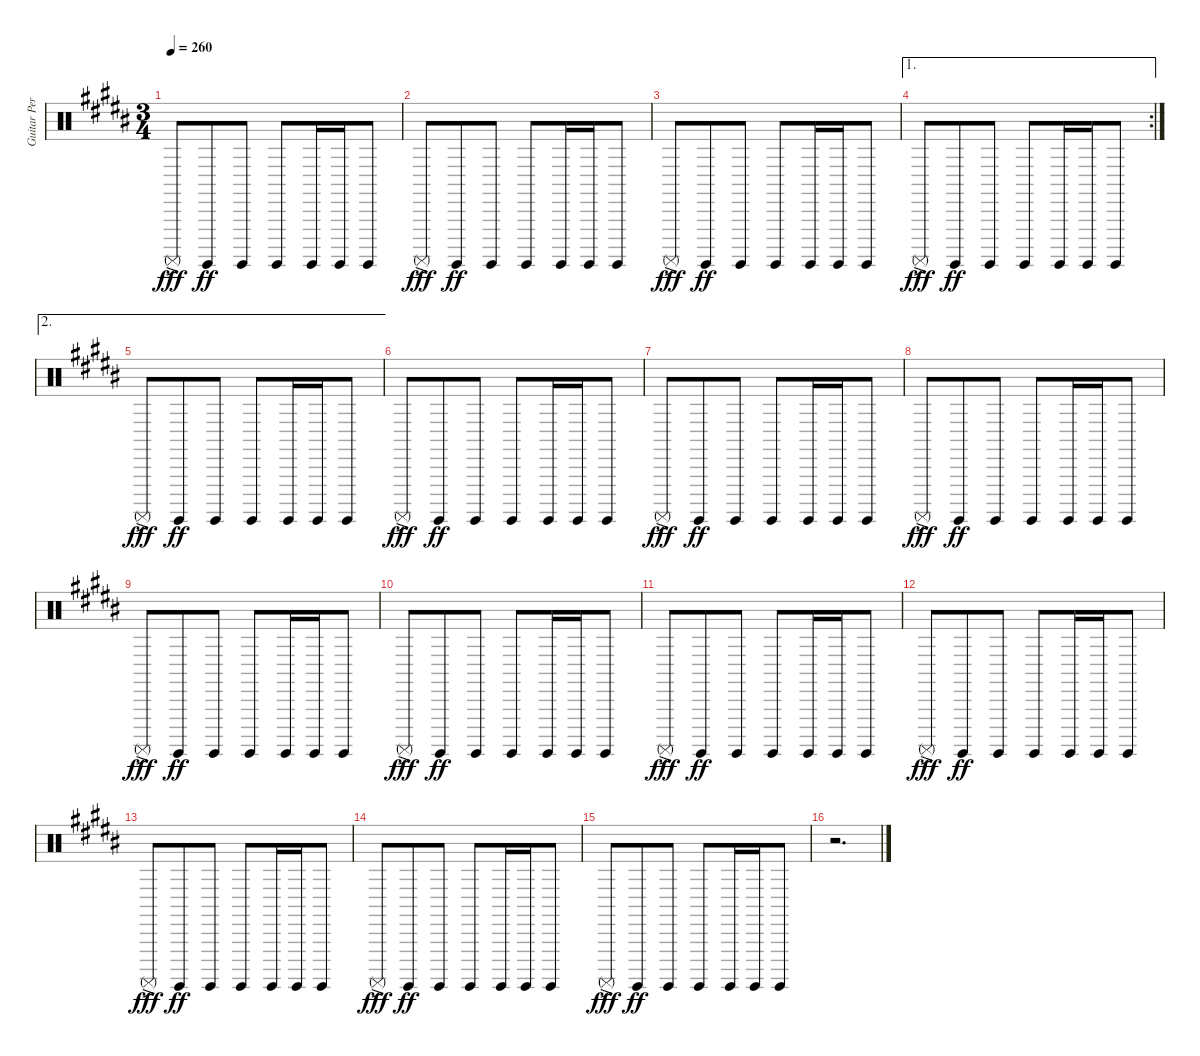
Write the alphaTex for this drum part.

\track ("Guitar Percussion Noises" "Guitar Per") {instrument percussion}
\staff {score}
\articulation defaults
\ts (3 4)
\tempo 260
\clef neutral
\ks b "Surdo (mute)"{ac}.8{dy fff} "Surdo (hit)".8{dy ff beam merge} "Surdo (hit)".8{beam split} "Surdo (hit)".8{beam merge} "Surdo (hit)".16{beam merge} "Surdo (hit)".16 "Surdo (hit)".8
|
"Surdo (mute)"{ac}.8{dy fff} "Surdo (hit)".8{dy ff beam merge} "Surdo (hit)".8{beam split} "Surdo (hit)".8{beam merge} "Surdo (hit)".16{beam merge} "Surdo (hit)".16 "Surdo (hit)".8 |
"Surdo (mute)"{ac}.8{dy fff} "Surdo (hit)".8{dy ff beam merge} "Surdo (hit)".8{beam split} "Surdo (hit)".8{beam merge} "Surdo (hit)".16{beam merge} "Surdo (hit)".16 "Surdo (hit)".8 |
\ae 1
\rc 2 "Surdo (mute)"{ac}.8{dy fff} "Surdo (hit)".8{dy ff beam merge} "Surdo (hit)".8{beam split} "Surdo (hit)".8{beam merge} "Surdo (hit)".16{beam merge} "Surdo (hit)".16 "Surdo (hit)".8
|
\ae 2 "Surdo (mute)"{ac}.8{dy fff} "Surdo (hit)".8{dy ff beam merge} "Surdo (hit)".8{beam split} "Surdo (hit)".8{beam merge} "Surdo (hit)".16{beam merge} "Surdo (hit)".16 "Surdo (hit)".8
|
"Surdo (mute)"{ac}.8{dy fff} "Surdo (hit)".8{dy ff beam merge} "Surdo (hit)".8{beam split} "Surdo (hit)".8{beam merge} "Surdo (hit)".16{beam merge} "Surdo (hit)".16 "Surdo (hit)".8 |
"Surdo (mute)"{ac}.8{dy fff} "Surdo (hit)".8{dy ff beam merge} "Surdo (hit)".8{beam split} "Surdo (hit)".8{beam merge} "Surdo (hit)".16{beam merge} "Surdo (hit)".16 "Surdo (hit)".8 |
"Surdo (mute)"{ac}.8{dy fff} "Surdo (hit)".8{dy ff beam merge} "Surdo (hit)".8{beam split} "Surdo (hit)".8{beam merge} "Surdo (hit)".16{beam merge} "Surdo (hit)".16 "Surdo (hit)".8 |
"Surdo (mute)"{ac}.8{dy fff} "Surdo (hit)".8{dy ff beam merge} "Surdo (hit)".8{beam split} "Surdo (hit)".8{beam merge} "Surdo (hit)".16{beam merge} "Surdo (hit)".16 "Surdo (hit)".8 |
"Surdo (mute)"{ac}.8{dy fff} "Surdo (hit)".8{dy ff beam merge} "Surdo (hit)".8{beam split} "Surdo (hit)".8{beam merge} "Surdo (hit)".16{beam merge} "Surdo (hit)".16 "Surdo (hit)".8 |
"Surdo (mute)"{ac}.8{dy fff} "Surdo (hit)".8{dy ff beam merge} "Surdo (hit)".8{beam split} "Surdo (hit)".8{beam merge} "Surdo (hit)".16{beam merge} "Surdo (hit)".16 "Surdo (hit)".8 |
"Surdo (mute)"{ac}.8{dy fff} "Surdo (hit)".8{dy ff beam merge} "Surdo (hit)".8{beam split} "Surdo (hit)".8{beam merge} "Surdo (hit)".16{beam merge} "Surdo (hit)".16 "Surdo (hit)".8 |
"Surdo (mute)"{ac}.8{dy fff} "Surdo (hit)".8{dy ff beam merge} "Surdo (hit)".8{beam split} "Surdo (hit)".8{beam merge} "Surdo (hit)".16{beam merge} "Surdo (hit)".16 "Surdo (hit)".8 |
"Surdo (mute)"{ac}.8{dy fff} "Surdo (hit)".8{dy ff beam merge} "Surdo (hit)".8{beam split} "Surdo (hit)".8{beam merge} "Surdo (hit)".16{beam merge} "Surdo (hit)".16 "Surdo (hit)".8 |
"Surdo (mute)"{ac}.8{dy fff} "Surdo (hit)".8{dy ff beam merge} "Surdo (hit)".8{beam split} "Surdo (hit)".8{beam merge} "Surdo (hit)".16{beam merge} "Surdo (hit)".16 "Surdo (hit)".8 |
r.2{d}
